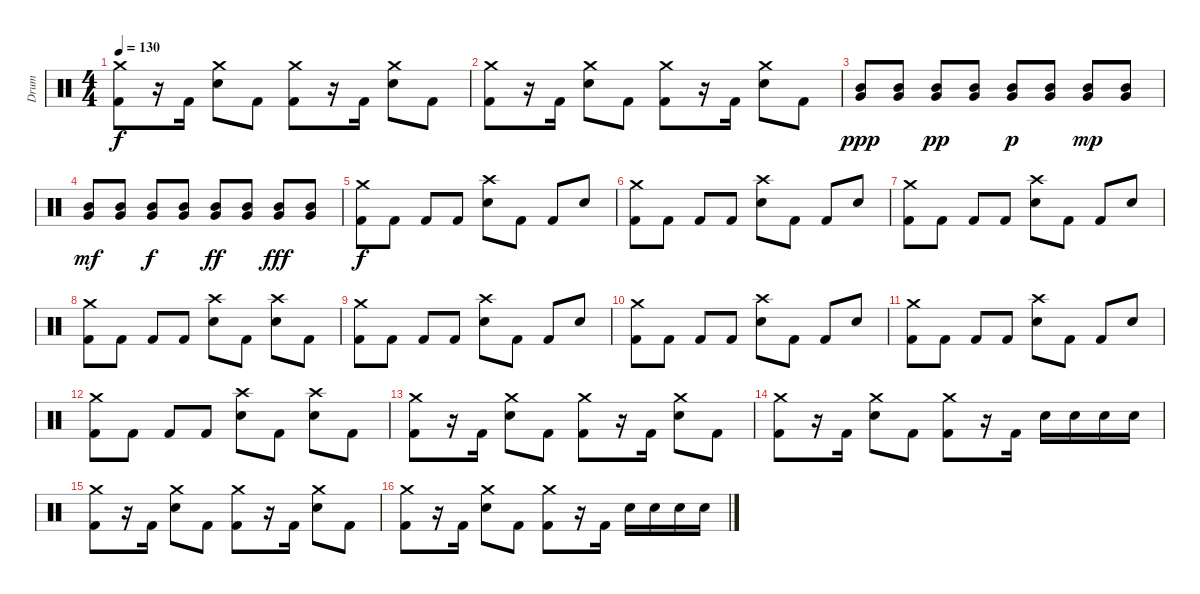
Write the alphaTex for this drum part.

\track ("Drum" "Drum") {instrument percussion}
\staff {score}
\articulation defaults
\ts (4 4)
\tempo 130
\clef neutral
\ks c
("Crash medium (hit)" "Kick (hit) 2").8{dy f} r.16 "Kick (hit) 2".16 ("Crash medium (hit)" "Snare (hit) 2").8 "Kick (hit) 2".8 ("Crash medium (hit)" "Kick (hit) 2").8 r.16 "Kick (hit) 2".16 ("Crash medium (hit)" "Snare (hit) 2").8 "Kick (hit) 2".8 |
("Crash medium (hit)" "Kick (hit) 2").8 r.16 "Kick (hit) 2".16 ("Crash medium (hit)" "Snare (hit) 2").8 "Kick (hit) 2".8 ("Crash medium (hit)" "Kick (hit) 2").8 r.16 "Kick (hit) 2".16 ("Crash medium (hit)" "Snare (hit) 2").8 "Kick (hit) 2".8 |
("Mid Tom (hit)" "Very Low Tom (hit)").8{dy ppp} ("Mid Tom (hit)" "Very Low Tom (hit)").8 ("Mid Tom (hit)" "Very Low Tom (hit)").8{dy pp} ("Mid Tom (hit)" "Very Low Tom (hit)").8 ("Mid Tom (hit)" "Very Low Tom (hit)").8{dy p} ("Mid Tom (hit)" "Very Low Tom (hit)").8 ("Mid Tom (hit)" "Very Low Tom (hit)").8{dy mp} ("Mid Tom (hit)" "Very Low Tom (hit)").8 |
("Mid Tom (hit)" "Very Low Tom (hit)").8{dy mf} ("Mid Tom (hit)" "Very Low Tom (hit)").8 ("Mid Tom (hit)" "Very Low Tom (hit)").8{dy f} ("Mid Tom (hit)" "Very Low Tom (hit)").8 ("Mid Tom (hit)" "Very Low Tom (hit)").8{dy ff} ("Mid Tom (hit)" "Very Low Tom (hit)").8 ("Mid Tom (hit)" "Very Low Tom (hit)").8{dy fff} ("Mid Tom (hit)" "Very Low Tom (hit)").8 |
("Crash medium (hit)" "Kick (hit) 2").8{dy f} "Kick (hit) 2".8 "Kick (hit) 2".8 "Kick (hit) 2".8 ("Crash high (hit)" "Snare (hit) 2").8 "Kick (hit) 2".8 "Kick (hit) 2".8 "Snare (hit) 2".8 |
("Crash medium (hit)" "Kick (hit) 2").8 "Kick (hit) 2".8 "Kick (hit) 2".8 "Kick (hit) 2".8 ("Crash high (hit)" "Snare (hit) 2").8 "Kick (hit) 2".8 "Kick (hit) 2".8 "Snare (hit) 2".8 |
("Crash medium (hit)" "Kick (hit) 2").8 "Kick (hit) 2".8 "Kick (hit) 2".8 "Kick (hit) 2".8 ("Crash high (hit)" "Snare (hit) 2").8 "Kick (hit) 2".8 "Kick (hit) 2".8 "Snare (hit) 2".8 |
("Crash medium (hit)" "Kick (hit) 2").8 "Kick (hit) 2".8 "Kick (hit) 2".8 "Kick (hit) 2".8 ("Crash high (hit)" "Snare (hit) 2").8 "Kick (hit) 2".8 ("Crash high (hit)" "Snare (hit) 2").8 "Kick (hit) 2".8 |
("Crash medium (hit)" "Kick (hit) 2").8 "Kick (hit) 2".8 "Kick (hit) 2".8 "Kick (hit) 2".8 ("Crash high (hit)" "Snare (hit) 2").8 "Kick (hit) 2".8 "Kick (hit) 2".8 "Snare (hit) 2".8 |
("Crash medium (hit)" "Kick (hit) 2").8 "Kick (hit) 2".8 "Kick (hit) 2".8 "Kick (hit) 2".8 ("Crash high (hit)" "Snare (hit) 2").8 "Kick (hit) 2".8 "Kick (hit) 2".8 "Snare (hit) 2".8 |
("Crash medium (hit)" "Kick (hit) 2").8 "Kick (hit) 2".8 "Kick (hit) 2".8 "Kick (hit) 2".8 ("Crash high (hit)" "Snare (hit) 2").8 "Kick (hit) 2".8 "Kick (hit) 2".8 "Snare (hit) 2".8 |
("Crash medium (hit)" "Kick (hit) 2").8 "Kick (hit) 2".8 "Kick (hit) 2".8 "Kick (hit) 2".8 ("Crash high (hit)" "Snare (hit) 2").8 "Kick (hit) 2".8 ("Crash high (hit)" "Snare (hit) 2").8 "Kick (hit) 2".8 |
("Crash medium (hit)" "Kick (hit) 2").8 r.16 "Kick (hit) 2".16 ("Crash medium (hit)" "Snare (hit) 2").8 "Kick (hit) 2".8 ("Crash medium (hit)" "Kick (hit) 2").8 r.16 "Kick (hit) 2".16 ("Crash medium (hit)" "Snare (hit) 2").8 "Kick (hit) 2".8 |
("Crash medium (hit)" "Kick (hit) 2").8 r.16 "Kick (hit) 2".16 ("Crash medium (hit)" "Snare (hit) 2").8 "Kick (hit) 2".8 ("Crash medium (hit)" "Kick (hit) 2").8 r.16 "Kick (hit) 2".16 "Snare (hit) 2".16 "Snare (hit) 2".16 "Snare (hit) 2".16 "Snare (hit) 2".16 |
("Crash medium (hit)" "Kick (hit) 2").8 r.16 "Kick (hit) 2".16 ("Crash medium (hit)" "Snare (hit) 2").8 "Kick (hit) 2".8 ("Crash medium (hit)" "Kick (hit) 2").8 r.16 "Kick (hit) 2".16 ("Crash medium (hit)" "Snare (hit) 2").8 "Kick (hit) 2".8 |
("Crash medium (hit)" "Kick (hit) 2").8 r.16 "Kick (hit) 2".16 ("Crash medium (hit)" "Snare (hit) 2").8 "Kick (hit) 2".8 ("Crash medium (hit)" "Kick (hit) 2").8 r.16 "Kick (hit) 2".16 "Snare (hit) 2".16 "Snare (hit) 2".16 "Snare (hit) 2".16 "Snare (hit) 2".16
